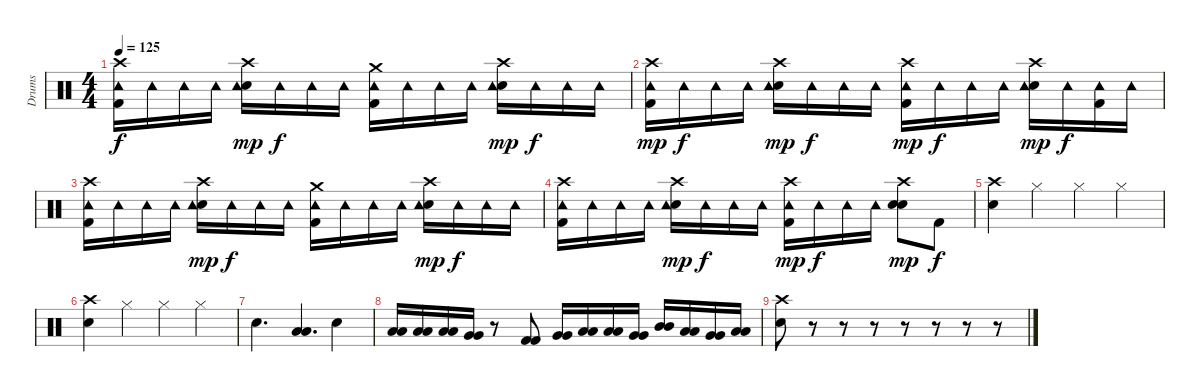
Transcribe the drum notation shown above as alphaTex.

\track ("Drums" "Drums") {instrument percussion}
\staff {score}
\articulation defaults
\ts (4 4)
\tempo 125
\clef neutral
\ks c
("Crash high (hit)" "Kick (hit) 2" "Tambourine (hit)").16{dy f} "Tambourine (hit)".16 "Tambourine (hit)".16 "Tambourine (hit)".16 ("Crash high (hit)" "Snare (hit) 2" "Tambourine (hit)").16{dy mp} "Tambourine (hit)".16{dy f} "Tambourine (hit)".16 "Tambourine (hit)".16 ("Crash medium (hit)" "Kick (hit) 2" "Tambourine (hit)").16 "Tambourine (hit)".16 "Tambourine (hit)".16 "Tambourine (hit)".16 ("Crash high (hit)" "Snare (hit) 2" "Tambourine (hit)").16{dy mp} "Tambourine (hit)".16{dy f} "Tambourine (hit)".16 "Tambourine (hit)".16 |
("Crash high (hit)" "Kick (hit) 2" "Tambourine (hit)").16{dy mp} "Tambourine (hit)".16{dy f} "Tambourine (hit)".16 "Tambourine (hit)".16 ("Crash high (hit)" "Snare (hit) 2" "Tambourine (hit)").16{dy mp} "Tambourine (hit)".16{dy f} "Tambourine (hit)".16 "Tambourine (hit)".16 ("Crash high (hit)" "Kick (hit) 2" "Tambourine (hit)").16{dy mp} "Tambourine (hit)".16{dy f} "Tambourine (hit)".16 "Tambourine (hit)".16 ("Crash high (hit)" "Snare (hit) 2" "Tambourine (hit)").16{dy mp} "Tambourine (hit)".16{dy f} ("Kick (hit) 2" "Tambourine (hit)").16 "Tambourine (hit)".16 |
("Crash high (hit)" "Kick (hit) 2" "Tambourine (hit)").16 "Tambourine (hit)".16 "Tambourine (hit)".16 "Tambourine (hit)".16 ("Crash high (hit)" "Snare (hit) 2" "Tambourine (hit)").16{dy mp} "Tambourine (hit)".16{dy f} "Tambourine (hit)".16 "Tambourine (hit)".16 ("Crash medium (hit)" "Kick (hit) 2" "Tambourine (hit)").16 "Tambourine (hit)".16 "Tambourine (hit)".16 "Tambourine (hit)".16 ("Crash high (hit)" "Snare (hit) 2" "Tambourine (hit)").16{dy mp} "Tambourine (hit)".16{dy f} "Tambourine (hit)".16 "Tambourine (hit)".16 |
("Crash high (hit)" "Kick (hit) 2" "Tambourine (hit)").16 "Tambourine (hit)".16 "Tambourine (hit)".16 "Tambourine (hit)".16 ("Crash high (hit)" "Snare (hit) 2" "Tambourine (hit)").16{dy mp} "Tambourine (hit)".16{dy f} "Tambourine (hit)".16 "Tambourine (hit)".16 ("Crash high (hit)" "Kick (hit) 2" "Tambourine (hit)").16{dy mp} "Tambourine (hit)".16{dy f} "Tambourine (hit)".16 "Tambourine (hit)".16 ("Crash high (hit)" "Snare (hit) 2" "Electric Snare (hit)").8{dy mp} "Kick (hit) 2".8{dy f} |
("Crash high (hit)" "Snare (hit) 2").4 "Hi-Hat (closed)".4 "Hi-Hat (closed)".4 "Hi-Hat (closed)".4 |
("Crash high (hit)" "Snare (hit) 2").4 "Hi-Hat (closed)".4 "Hi-Hat (closed)".4 "Hi-Hat (closed)".4 |
"Snare (hit) 2".4{d} ("Low Tom (hit)" "Low Tom (hit)").4{d} "Snare (hit) 2".4 |
("Low Tom (hit)" "Low Tom (hit)").16 ("Low Floor Tom (hit)" "Low Floor Tom (hit)").16 ("Low Floor Tom (hit)" "Low Floor Tom (hit)").16 ("Very Low Tom (hit)" "Very Low Tom (hit)").16 r.8 ("Kick (hit) 2" "Kick (hit) 2").8 ("Very Low Tom (hit)" "Very Low Tom (hit)").16 ("Low Floor Tom (hit)" "Low Floor Tom (hit)").16 ("Low Floor Tom (hit)" "Low Floor Tom (hit)").16 ("Very Low Tom (hit)" "Very Low Tom (hit)").16 ("Mid Tom (hit)" "Mid Tom (hit)").16 ("Low Tom (hit)" "Low Tom (hit)").16 ("Very Low Tom (hit)" "Very Low Tom (hit)").16 ("Low Floor Tom (hit)" "Low Floor Tom (hit)").16 |
("Crash high (hit)" "Snare (hit) 2").8 r.8 r.8 r.8 r.8 r.8 r.8 r.8
